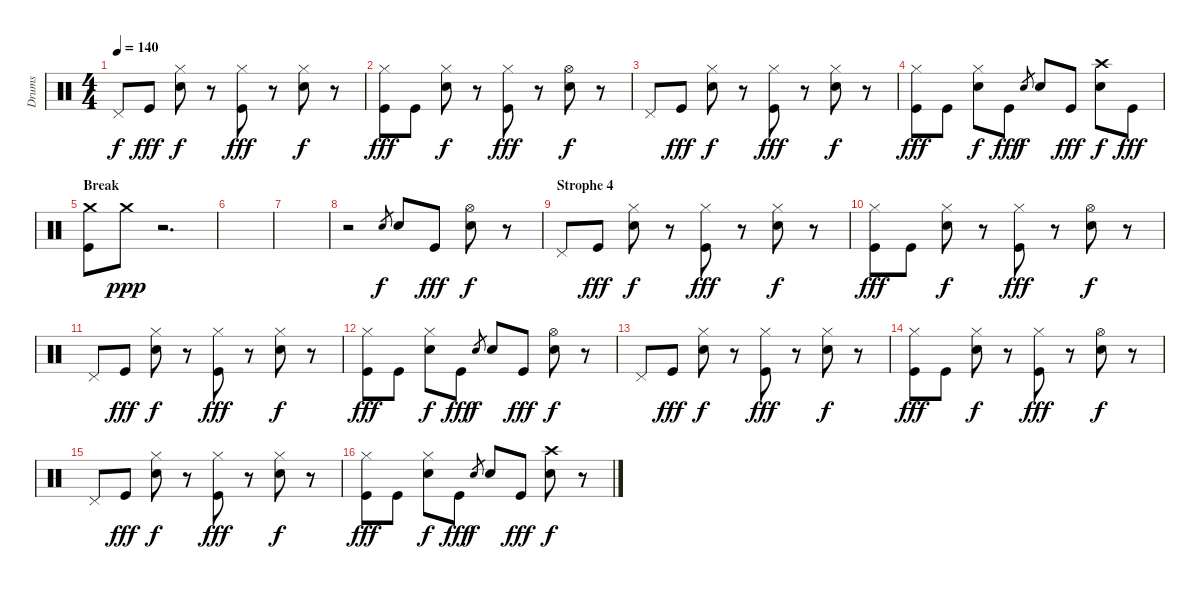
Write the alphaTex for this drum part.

\track ("Drums" "Drums") {instrument percussion}
\staff {score}
\articulation defaults
\ts (4 4)
\tempo 140
\clef neutral
\ks c "Pedal Hi-Hat (hit)".8{dy f} "Kick (hit)".8{dy fff}
("Hi-Hat (closed)" "Electric Snare (hit)").8{dy f} r.8 ("Hi-Hat (closed)" "Kick (hit)").8{dy fff} r.8 ("Hi-Hat (closed)" "Electric Snare (hit)").8{dy f} r.8 |
("Hi-Hat (closed)" "Kick (hit)").8{dy fff} "Kick (hit)".8 ("Hi-Hat (closed)" "Electric Snare (hit)").8{dy f} r.8 ("Hi-Hat (closed)" "Kick (hit)").8{dy fff} r.8 ("Hi-Hat (open)" "Electric Snare (hit)").8{dy f} r.8 |
"Pedal Hi-Hat (hit)".8 "Kick (hit)".8{dy fff} ("Hi-Hat (closed)" "Electric Snare (hit)").8{dy f} r.8 ("Hi-Hat (closed)" "Kick (hit)").8{dy fff} r.8 ("Hi-Hat (closed)" "Electric Snare (hit)").8{dy f} r.8 |
("Hi-Hat (closed)" "Kick (hit)").8{dy fff} "Kick (hit)".8 ("Hi-Hat (closed)" "Electric Snare (hit)").8{dy f} "Kick (hit)".8{dy fff} "Electric Snare (hit)".8{gr dy f} "Electric Snare (hit)".8 "Kick (hit)".8{dy fff} ("Crash high (hit)" "Electric Snare (hit)").8{dy f} "Kick (hit)".8{dy fff} |
\section ("" "Break")
("Crash medium (hit)" "Kick (hit)").8 "Crash medium (hit)".8{dy ppp} r.2{d} |
|
|
r.2 "Electric Snare (hit)".8{gr dy f} "Electric Snare (hit)".8 "Kick (hit)".8{dy fff} ("Hi-Hat (open)" "Electric Snare (hit)").8{dy f} r.8 |
\section ("" "Strophe 4")
"Pedal Hi-Hat (hit)".8 "Kick (hit)".8{dy fff} ("Hi-Hat (closed)" "Electric Snare (hit)").8{dy f} r.8 ("Hi-Hat (closed)" "Kick (hit)").8{dy fff} r.8 ("Hi-Hat (closed)" "Electric Snare (hit)").8{dy f} r.8 |
("Hi-Hat (closed)" "Kick (hit)").8{dy fff} "Kick (hit)".8 ("Hi-Hat (closed)" "Electric Snare (hit)").8{dy f} r.8 ("Hi-Hat (closed)" "Kick (hit)").8{dy fff} r.8 ("Hi-Hat (open)" "Electric Snare (hit)").8{dy f} r.8 |
"Pedal Hi-Hat (hit)".8 "Kick (hit)".8{dy fff} ("Hi-Hat (closed)" "Electric Snare (hit)").8{dy f} r.8 ("Hi-Hat (closed)" "Kick (hit)").8{dy fff} r.8 ("Hi-Hat (closed)" "Electric Snare (hit)").8{dy f} r.8 |
("Hi-Hat (closed)" "Kick (hit)").8{dy fff} "Kick (hit)".8 ("Hi-Hat (closed)" "Electric Snare (hit)").8{dy f} "Kick (hit)".8{dy fff} "Electric Snare (hit)".8{gr dy f} "Electric Snare (hit)".8 "Kick (hit)".8{dy fff} ("Hi-Hat (open)" "Electric Snare (hit)").8{dy f} r.8 |
"Pedal Hi-Hat (hit)".8 "Kick (hit)".8{dy fff} ("Hi-Hat (closed)" "Electric Snare (hit)").8{dy f} r.8 ("Hi-Hat (closed)" "Kick (hit)").8{dy fff} r.8 ("Hi-Hat (closed)" "Electric Snare (hit)").8{dy f} r.8 |
("Hi-Hat (closed)" "Kick (hit)").8{dy fff} "Kick (hit)".8 ("Hi-Hat (closed)" "Electric Snare (hit)").8{dy f} r.8 ("Hi-Hat (closed)" "Kick (hit)").8{dy fff} r.8 ("Hi-Hat (open)" "Electric Snare (hit)").8{dy f} r.8 |
"Pedal Hi-Hat (hit)".8 "Kick (hit)".8{dy fff} ("Hi-Hat (closed)" "Electric Snare (hit)").8{dy f} r.8 ("Hi-Hat (closed)" "Kick (hit)").8{dy fff} r.8 ("Hi-Hat (closed)" "Electric Snare (hit)").8{dy f} r.8 |
("Hi-Hat (closed)" "Kick (hit)").8{dy fff} "Kick (hit)".8 ("Hi-Hat (closed)" "Electric Snare (hit)").8{dy f} "Kick (hit)".8{dy fff} "Electric Snare (hit)".8{gr dy f} "Electric Snare (hit)".8 "Kick (hit)".8{dy fff} ("Crash high (hit)" "Electric Snare (hit)").8{dy f} r.8
